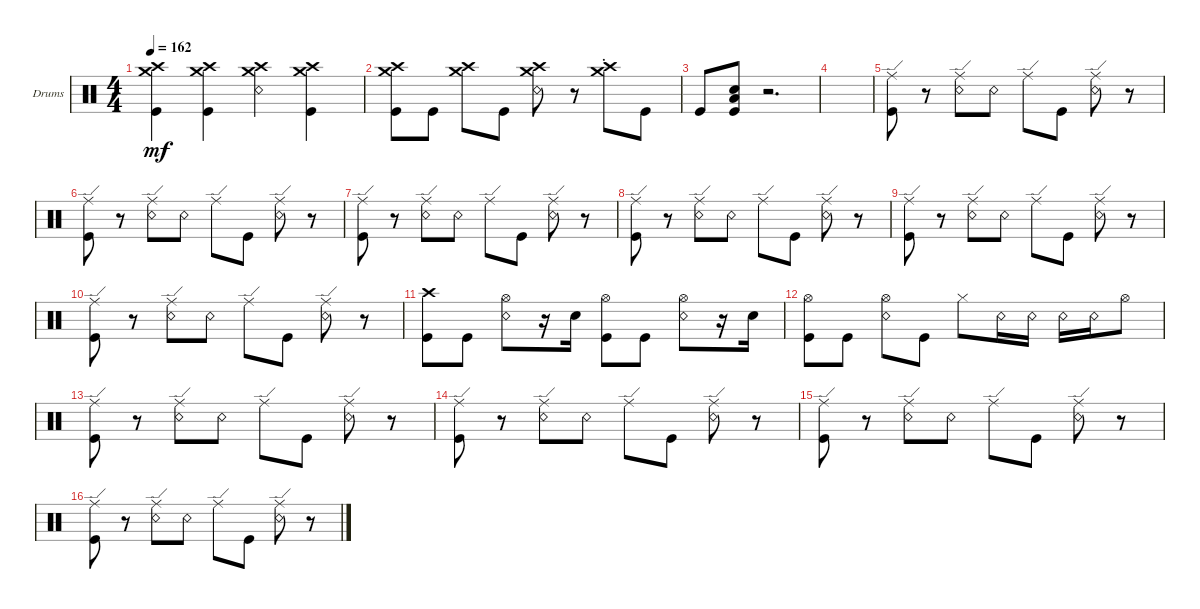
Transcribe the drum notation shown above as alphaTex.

\defaultSystemsLayout 4
\bracketExtendMode groupsimilarinstruments
\firstSystemTrackNameOrientation horizontal
\otherSystemsTrackNameOrientation horizontal
\track ("Drumkit" "Drums") {instrument percussion}
\staff {score}
\articulation defaults
\ts (4 4)
\tempo 162
\clef neutral
\ks c
("Kick (hit)" "Crash high (hit)" "Crash medium (hit)").4{dy mf} ("Kick (hit)" "Crash high (hit)" "Crash medium (hit)").4 ("Snare (rim shot)" "Crash high (hit)" "Crash medium (hit)").4 ("Kick (hit)" "Crash high (hit)" "Crash medium (hit)").4 |
("Kick (hit)" "Crash high (hit)" "Crash medium (hit)").8 "Kick (hit)".8 ("Crash high (hit)" "Crash medium (hit)").8 "Kick (hit)".8 ("Snare (rim shot)" "Crash high (hit)" "Crash medium (hit)").8 r.8 ("Crash high (hit)"{st} "Crash medium (hit)"{st}).8 "Kick (hit)".8 |
"Kick (hit)".8 ("Kick (hit)" "Snare (hit) 2" "Low Tom (hit)").8 r.2{d} |
|
("Ride (edge)" "Kick (hit)").8 r.8 ("Ride (edge)" "Snare (rim shot)").8 "Snare (rim shot)".8 "Ride (edge)".8 "Kick (hit)".8 ("Snare (rim shot)" "Ride (edge)").8 r.8 |
("Ride (edge)" "Kick (hit)").8 r.8 ("Ride (edge)" "Snare (rim shot)").8 "Snare (rim shot)".8 "Ride (edge)".8 "Kick (hit)".8 ("Snare (rim shot)" "Ride (edge)").8 r.8 |
("Ride (edge)" "Kick (hit)").8 r.8 ("Ride (edge)" "Snare (rim shot)").8 "Snare (rim shot)".8 "Ride (edge)".8 "Kick (hit)".8 ("Snare (rim shot)" "Ride (edge)").8 r.8 |
("Ride (edge)" "Kick (hit)").8 r.8 ("Ride (edge)" "Snare (rim shot)").8 "Snare (rim shot)".8 "Ride (edge)".8 "Kick (hit)".8 ("Snare (rim shot)" "Ride (edge)").8 r.8 |
("Ride (edge)" "Kick (hit)").8 r.8 ("Ride (edge)" "Snare (rim shot)").8 "Snare (rim shot)".8 "Ride (edge)".8 "Kick (hit)".8 ("Snare (rim shot)" "Ride (edge)").8 r.8 |
("Ride (edge)" "Kick (hit)").8 r.8 ("Ride (edge)" "Snare (rim shot)").8 "Snare (rim shot)".8 "Ride (edge)".8 "Kick (hit)".8 ("Snare (rim shot)" "Ride (edge)").8 r.8 |
("Kick (hit)" "Crash high (hit)").8 "Kick (hit)".8 ("Snare (rim shot)" "Hi-Hat (open)").8 r.16 "Snare (hit) 2".16 ("Kick (hit)" "Hi-Hat (open)").8 "Kick (hit)".8 ("Snare (rim shot)" "Hi-Hat (open)").8 r.16 "Snare (hit) 2".16 |
("Kick (hit)" "Hi-Hat (open)").8 "Kick (hit)".8 ("Snare (rim shot)" "Hi-Hat (open)").8 "Kick (hit)".8 "Hi-Hat (closed)".8 "Snare (rim shot)".16 "Snare (rim shot)".16 "Snare (rim shot)".16 "Snare (rim shot)".16 "Hi-Hat (open)".8 |
("Ride (edge)" "Kick (hit)").8 r.8 ("Ride (edge)" "Snare (rim shot)").8 "Snare (rim shot)".8 "Ride (edge)".8 "Kick (hit)".8 ("Snare (rim shot)" "Ride (edge)").8 r.8 |
("Ride (edge)" "Kick (hit)").8 r.8 ("Ride (edge)" "Snare (rim shot)").8 "Snare (rim shot)".8 "Ride (edge)".8 "Kick (hit)".8 ("Snare (rim shot)" "Ride (edge)").8 r.8 |
("Ride (edge)" "Kick (hit)").8 r.8 ("Ride (edge)" "Snare (rim shot)").8 "Snare (rim shot)".8 "Ride (edge)".8 "Kick (hit)".8 ("Snare (rim shot)" "Ride (edge)").8 r.8 |
("Ride (edge)" "Kick (hit)").8 r.8 ("Ride (edge)" "Snare (rim shot)").8 "Snare (rim shot)".8 "Ride (edge)".8 "Kick (hit)".8 ("Snare (rim shot)" "Ride (edge)").8 r.8
